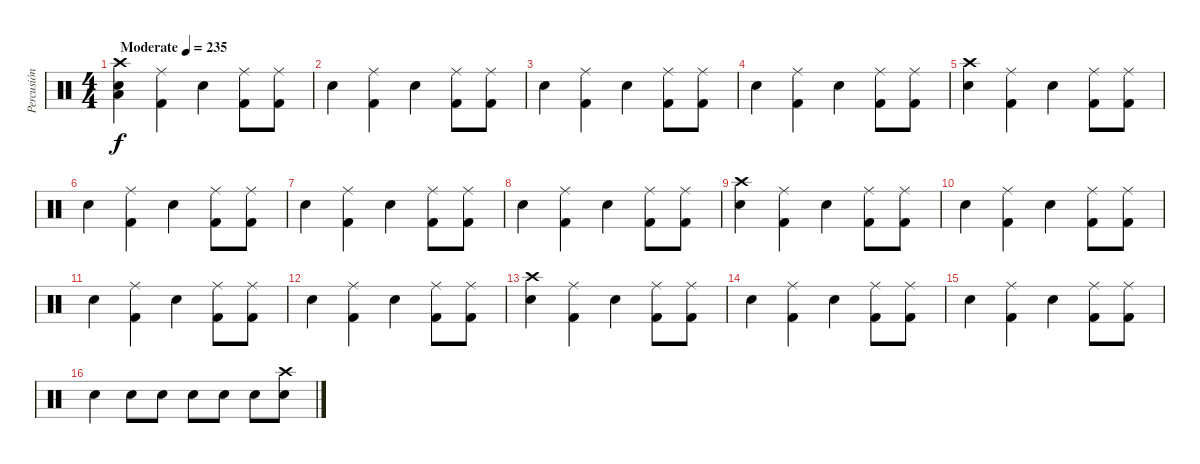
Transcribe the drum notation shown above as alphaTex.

\track ("Percusión" "Percusión") {instrument percussion}
\staff {score}
\articulation defaults
\ts (4 4)
\tempo (235 "Moderate")
\clef neutral
\ks c
("Electric Snare (hit)" "Low Tom (hit)" "Crash high (hit)").4{dy f} ("Ride (middle)" "Kick (hit) 2").4 "Electric Snare (hit)".4 ("Ride (middle)" "Kick (hit) 2").8 ("Ride (middle)" "Kick (hit) 2").8 |
"Electric Snare (hit)".4 ("Ride (middle)" "Kick (hit) 2").4 "Electric Snare (hit)".4 ("Ride (middle)" "Kick (hit) 2").8 ("Ride (middle)" "Kick (hit) 2").8 |
"Electric Snare (hit)".4 ("Ride (middle)" "Kick (hit) 2").4 "Electric Snare (hit)".4 ("Ride (middle)" "Kick (hit) 2").8 ("Ride (middle)" "Kick (hit) 2").8 |
"Electric Snare (hit)".4 ("Ride (middle)" "Kick (hit) 2").4 "Electric Snare (hit)".4 ("Ride (middle)" "Kick (hit) 2").8 ("Ride (middle)" "Kick (hit) 2").8 |
("Electric Snare (hit)" "Crash high (hit)").4 ("Ride (middle)" "Kick (hit) 2").4 "Electric Snare (hit)".4 ("Ride (middle)" "Kick (hit) 2").8 ("Ride (middle)" "Kick (hit) 2").8 |
"Electric Snare (hit)".4 ("Ride (middle)" "Kick (hit) 2").4 "Electric Snare (hit)".4 ("Ride (middle)" "Kick (hit) 2").8 ("Ride (middle)" "Kick (hit) 2").8 |
"Electric Snare (hit)".4 ("Ride (middle)" "Kick (hit) 2").4 "Electric Snare (hit)".4 ("Ride (middle)" "Kick (hit) 2").8 ("Ride (middle)" "Kick (hit) 2").8 |
"Electric Snare (hit)".4 ("Ride (middle)" "Kick (hit) 2").4 "Electric Snare (hit)".4 ("Ride (middle)" "Kick (hit) 2").8 ("Ride (middle)" "Kick (hit) 2").8 |
("Electric Snare (hit)" "Crash high (hit)").4 ("Ride (middle)" "Kick (hit) 2").4 "Electric Snare (hit)".4 ("Ride (middle)" "Kick (hit) 2").8 ("Ride (middle)" "Kick (hit) 2").8 |
"Electric Snare (hit)".4 ("Ride (middle)" "Kick (hit) 2").4 "Electric Snare (hit)".4 ("Ride (middle)" "Kick (hit) 2").8 ("Ride (middle)" "Kick (hit) 2").8 |
"Electric Snare (hit)".4 ("Ride (middle)" "Kick (hit) 2").4 "Electric Snare (hit)".4 ("Ride (middle)" "Kick (hit) 2").8 ("Ride (middle)" "Kick (hit) 2").8 |
"Electric Snare (hit)".4 ("Ride (middle)" "Kick (hit) 2").4 "Electric Snare (hit)".4 ("Ride (middle)" "Kick (hit) 2").8 ("Ride (middle)" "Kick (hit) 2").8 |
("Electric Snare (hit)" "Crash high (hit)").4 ("Ride (middle)" "Kick (hit) 2").4 "Electric Snare (hit)".4 ("Ride (middle)" "Kick (hit) 2").8 ("Ride (middle)" "Kick (hit) 2").8 |
"Electric Snare (hit)".4 ("Ride (middle)" "Kick (hit) 2").4 "Electric Snare (hit)".4 ("Ride (middle)" "Kick (hit) 2").8 ("Ride (middle)" "Kick (hit) 2").8 |
"Electric Snare (hit)".4 ("Ride (middle)" "Kick (hit) 2").4 "Electric Snare (hit)".4 ("Ride (middle)" "Kick (hit) 2").8 ("Ride (middle)" "Kick (hit) 2").8 |
"Electric Snare (hit)".4 "Electric Snare (hit)".8 "Electric Snare (hit)".8 "Electric Snare (hit)".8 "Electric Snare (hit)".8 "Electric Snare (hit)".8 ("Electric Snare (hit)" "Crash high (hit)").8
